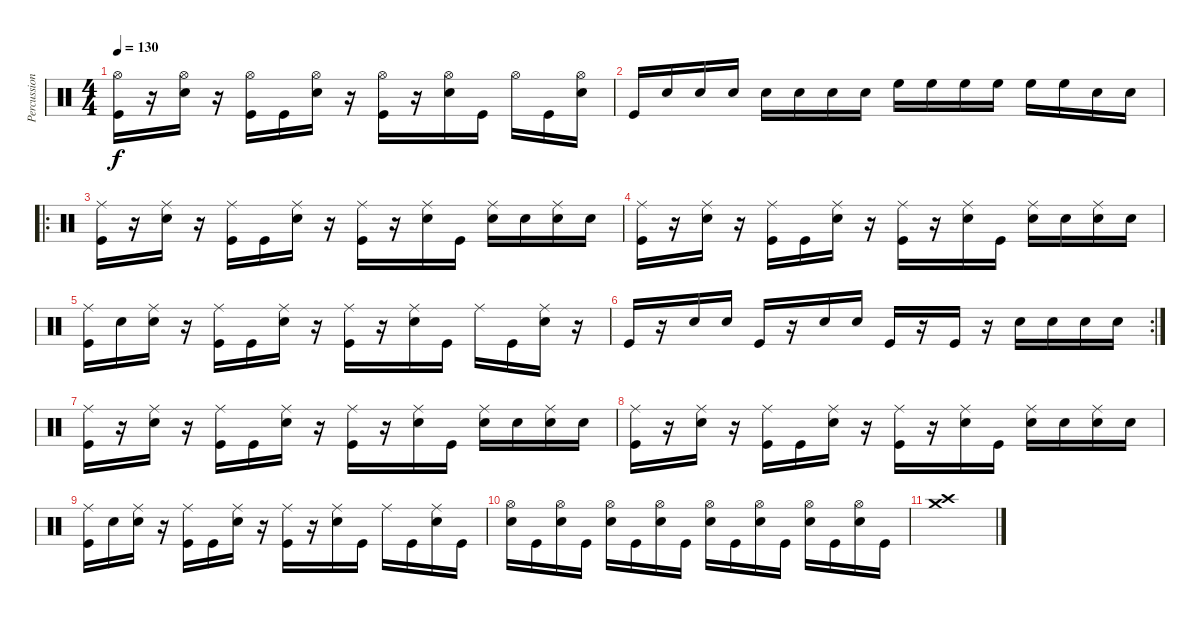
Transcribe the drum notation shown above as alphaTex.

\track ("Percussion" "Percussion") {instrument percussion}
\staff {score}
\articulation defaults
\ts (4 4)
\tempo 130
\clef neutral
\ks c
("Hi-Hat (open)" "Kick (hit)").16{dy f} r.16 ("Hi-Hat (open)" "Electric Snare (hit)").16 r.16 ("Hi-Hat (open)" "Kick (hit)").16 "Kick (hit)".16 ("Hi-Hat (open)" "Electric Snare (hit)").16 r.16 ("Hi-Hat (open)" "Kick (hit)").16 r.16 ("Hi-Hat (open)" "Electric Snare (hit)").16 "Kick (hit)".16 "Hi-Hat (open)".16 "Kick (hit)".16 ("Hi-Hat (open)" "Electric Snare (hit)").16 |
"Kick (hit)".16 "Electric Snare (hit)".16 "Electric Snare (hit)".16 "Electric Snare (hit)".16 "Electric Snare (hit)".16 "Electric Snare (hit)".16 "Electric Snare (hit)".16 "Electric Snare (hit)".16 "High Floor Tom (hit)".16 "High Floor Tom (hit)".16 "High Floor Tom (hit)".16 "High Floor Tom (hit)".16 "High Floor Tom (hit)".16 "High Floor Tom (hit)".16 "Electric Snare (hit)".16 "Electric Snare (hit)".16 |
\ro
("Ride (middle)" "Kick (hit)").16 r.16 ("Ride (middle)" "Electric Snare (hit)").16 r.16 ("Ride (middle)" "Kick (hit)").16 "Kick (hit)".16 ("Ride (middle)" "Electric Snare (hit)").16 r.16 ("Ride (middle)" "Kick (hit)").16 r.16 ("Ride (middle)" "Electric Snare (hit)").16 "Kick (hit)".16 ("Ride (middle)" "Snare (hit)").16 "Electric Snare (hit)".16 ("Ride (middle)" "Electric Snare (hit)").16 "Electric Snare (hit)".16 |
("Ride (middle)" "Kick (hit)").16 r.16 ("Ride (middle)" "Electric Snare (hit)").16 r.16 ("Ride (middle)" "Kick (hit)").16 "Kick (hit)".16 ("Ride (middle)" "Electric Snare (hit)").16 r.16 ("Ride (middle)" "Kick (hit)").16 r.16 ("Ride (middle)" "Electric Snare (hit)").16 "Kick (hit)".16 ("Ride (middle)" "Snare (hit)").16 "Electric Snare (hit)".16 ("Ride (middle)" "Electric Snare (hit)").16 "Electric Snare (hit)".16 |
("Ride (middle)" "Kick (hit)").16 "Snare (hit)".16 ("Ride (middle)" "Electric Snare (hit)").16 r.16 ("Ride (middle)" "Kick (hit)").16 "Kick (hit)".16 ("Ride (middle)" "Electric Snare (hit)").16 r.16 ("Ride (middle)" "Kick (hit)").16 r.16 ("Ride (middle)" "Electric Snare (hit)").16 "Kick (hit)".16 "Ride (middle)".16 "Kick (hit)".16 ("Ride (middle)" "Electric Snare (hit)").16 r.16 |
\rc 2 "Kick (hit)".16
r.16 "Electric Snare (hit)".16 "Electric Snare (hit)".16 "Kick (hit)".16 r.16 "Electric Snare (hit)".16 "Electric Snare (hit)".16 "Kick (hit)".16 r.16 "Kick (hit)".16 r.16 "Electric Snare (hit)".16 "Electric Snare (hit)".16 "Electric Snare (hit)".16 "Electric Snare (hit)".16 |
("Ride (middle)" "Kick (hit)").16 r.16 ("Ride (middle)" "Electric Snare (hit)").16 r.16 ("Ride (middle)" "Kick (hit)").16 "Kick (hit)".16 ("Ride (middle)" "Electric Snare (hit)").16 r.16 ("Ride (middle)" "Kick (hit)").16 r.16 ("Ride (middle)" "Electric Snare (hit)").16 "Kick (hit)".16 ("Ride (middle)" "Snare (hit)").16 "Electric Snare (hit)".16 ("Ride (middle)" "Electric Snare (hit)").16 "Electric Snare (hit)".16 |
("Ride (middle)" "Kick (hit)").16 r.16 ("Ride (middle)" "Electric Snare (hit)").16 r.16 ("Ride (middle)" "Kick (hit)").16 "Kick (hit)".16 ("Ride (middle)" "Electric Snare (hit)").16 r.16 ("Ride (middle)" "Kick (hit)").16 r.16 ("Ride (middle)" "Electric Snare (hit)").16 "Kick (hit)".16 ("Ride (middle)" "Snare (hit)").16 "Electric Snare (hit)".16 ("Ride (middle)" "Electric Snare (hit)").16 "Electric Snare (hit)".16 |
("Ride (middle)" "Kick (hit)").16 "Snare (hit)".16 ("Ride (middle)" "Electric Snare (hit)").16 r.16 ("Ride (middle)" "Kick (hit)").16 "Kick (hit)".16 ("Ride (middle)" "Electric Snare (hit)").16 r.16 ("Ride (middle)" "Kick (hit)").16 r.16 ("Ride (middle)" "Electric Snare (hit)").16 "Kick (hit)".16 "Ride (middle)".16 "Kick (hit)".16 ("Ride (middle)" "Electric Snare (hit)").16 "Kick (hit)".16 |
("Hi-Hat (open)" "Electric Snare (hit)").16 "Kick (hit)".16 ("Hi-Hat (open)" "Electric Snare (hit)").16 "Kick (hit)".16 ("Hi-Hat (open)" "Electric Snare (hit)").16 "Kick (hit)".16 ("Hi-Hat (open)" "Electric Snare (hit)").16 "Kick (hit)".16 ("Hi-Hat (open)" "Electric Snare (hit)").16 "Kick (hit)".16 ("Hi-Hat (open)" "Electric Snare (hit)").16 "Kick (hit)".16 ("Hi-Hat (open)" "Electric Snare (hit)").16 "Kick (hit)".16 ("Hi-Hat (open)" "Electric Snare (hit)").16 "Kick (hit)".16 |
("Crash medium (hit)" "Crash high (hit)").1
